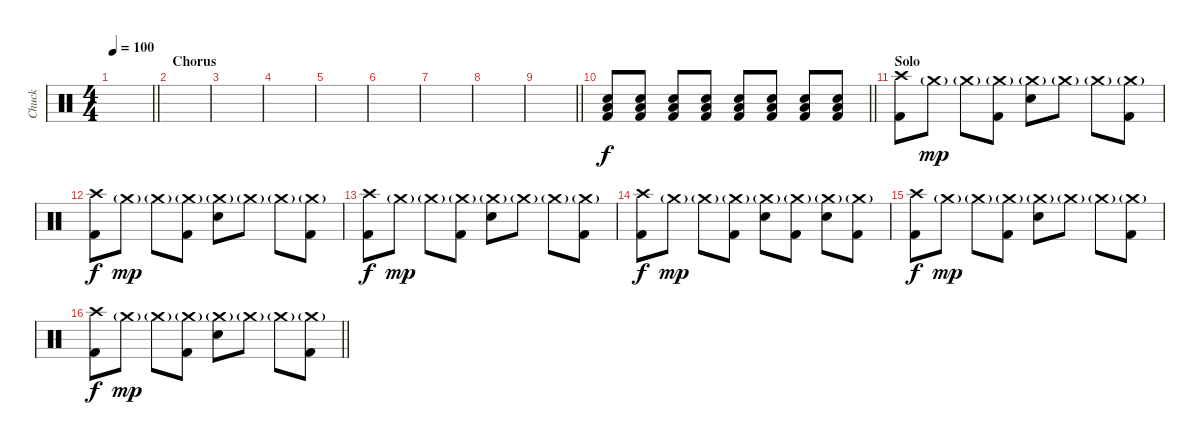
\track ("Chuck" "Chuck") {instrument percussion}
\staff {score}
\articulation defaults
\ts (4 4)
\tempo 100
\clef neutral
\barLineRight lightlight
\ks c
|
\section ("" "Chorus")
|
|
|
|
|
|
|
\barLineRight lightlight
|
\barLineRight lightlight
("Electric Snare (hit)" "Low Tom (hit)" "Kick (hit) 2").8 ("Electric Snare (hit)" "Low Tom (hit)" "Kick (hit) 2").8 ("Electric Snare (hit)" "Low Tom (hit)" "Kick (hit) 2").8 ("Electric Snare (hit)" "Low Tom (hit)" "Kick (hit) 2").8 ("Electric Snare (hit)" "Low Tom (hit)" "Kick (hit) 2").8 ("Electric Snare (hit)" "Low Tom (hit)" "Kick (hit) 2").8 ("Electric Snare (hit)" "Low Tom (hit)" "Kick (hit) 2").8 ("Electric Snare (hit)" "Low Tom (hit)" "Kick (hit) 2").8 |
\section ("" "Solo")
("Crash high (hit)" "Kick (hit) 2").8 "Crash medium (hit)"{g}.8{dy mp} "Crash medium (hit)"{g}.8 ("Crash medium (hit)"{g} "Kick (hit) 2").8 ("Crash medium (hit)"{g} "Electric Snare (hit)").8 "Crash medium (hit)"{g}.8 "Crash medium (hit)"{g}.8 ("Crash medium (hit)"{g} "Kick (hit) 2").8 |
("Crash high (hit)" "Kick (hit) 2").8{dy f} "Crash medium (hit)"{g}.8{dy mp} "Crash medium (hit)"{g}.8 ("Crash medium (hit)"{g} "Kick (hit) 2").8 ("Crash medium (hit)"{g} "Electric Snare (hit)").8 "Crash medium (hit)"{g}.8 "Crash medium (hit)"{g}.8 ("Crash medium (hit)"{g} "Kick (hit) 2").8 |
("Crash high (hit)" "Kick (hit) 2").8{dy f} "Crash medium (hit)"{g}.8{dy mp} "Crash medium (hit)"{g}.8 ("Crash medium (hit)"{g} "Kick (hit) 2").8 ("Crash medium (hit)"{g} "Electric Snare (hit)").8 "Crash medium (hit)"{g}.8 "Crash medium (hit)"{g}.8 ("Crash medium (hit)"{g} "Kick (hit) 2").8 |
("Crash high (hit)" "Kick (hit) 2").8{dy f} "Crash medium (hit)"{g}.8{dy mp} "Crash medium (hit)"{g}.8 ("Crash medium (hit)"{g} "Kick (hit) 2").8 ("Crash medium (hit)"{g} "Electric Snare (hit)").8 ("Crash medium (hit)"{g} "Kick (hit) 2").8 ("Crash medium (hit)"{g} "Electric Snare (hit)").8 ("Crash medium (hit)"{g} "Kick (hit) 2").8 |
("Crash high (hit)" "Kick (hit) 2").8{dy f} "Crash medium (hit)"{g}.8{dy mp} "Crash medium (hit)"{g}.8 ("Crash medium (hit)"{g} "Kick (hit) 2").8 ("Crash medium (hit)"{g} "Electric Snare (hit)").8 "Crash medium (hit)"{g}.8 "Crash medium (hit)"{g}.8 ("Crash medium (hit)"{g} "Kick (hit) 2").8 |
\barLineRight lightlight
("Crash high (hit)" "Kick (hit) 2").8{dy f} "Crash medium (hit)"{g}.8{dy mp} "Crash medium (hit)"{g}.8 ("Crash medium (hit)"{g} "Kick (hit) 2").8 ("Crash medium (hit)"{g} "Electric Snare (hit)").8 "Crash medium (hit)"{g}.8 "Crash medium (hit)"{g}.8 ("Crash medium (hit)"{g} "Kick (hit) 2").8
